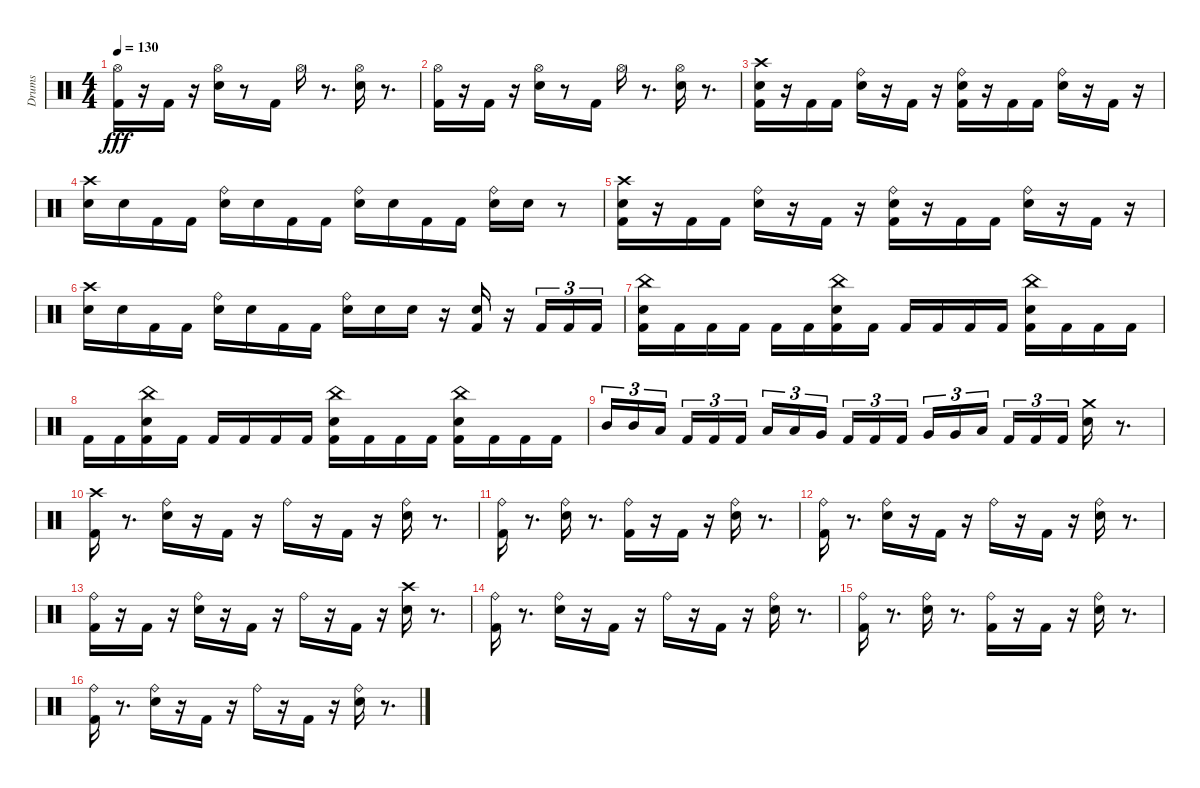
\track ("Drums" "Drums") {instrument percussion}
\staff {score}
\articulation defaults
\ts (4 4)
\tempo 130
\clef neutral
\ks c
("Kick (hit) 2" "Hi-Hat (open)").16{dy fff} r.16 "Kick (hit) 2".16 r.16 ("Hi-Hat (open)" "Electric Snare (hit)").16 r.8 "Kick (hit) 2".16 "Hi-Hat (open)".16 r.8{d} ("Hi-Hat (open)" "Electric Snare (hit)").16 r.8{d} |
("Kick (hit) 2" "Hi-Hat (open)").16 r.16 "Kick (hit) 2".16 r.16 ("Hi-Hat (open)" "Electric Snare (hit)").16 r.8 "Kick (hit) 2".16 "Hi-Hat (open)".16 r.8{d} ("Electric Snare (hit)" "Hi-Hat (open)").16 r.8{d} |
("Kick (hit) 2" "Electric Snare (hit)" "Crash high (hit)").16 r.16 "Kick (hit) 2".16 "Kick (hit) 2".16 ("Electric Snare (hit)" "Ride (bell)").16 r.16 "Kick (hit) 2".16 r.16 ("Kick (hit) 2" "Electric Snare (hit)" "Ride (bell)").16 r.16 "Kick (hit) 2".16 "Kick (hit) 2".16 ("Electric Snare (hit)" "Ride (bell)").16 r.16 "Kick (hit) 2".16 r.16 |
("Electric Snare (hit)" "Crash high (hit)").16 "Electric Snare (hit)".16 "Kick (hit) 2".16 "Kick (hit) 2".16 ("Electric Snare (hit)" "Ride (bell)").16 "Electric Snare (hit)".16 "Kick (hit) 2".16 "Kick (hit) 2".16 ("Electric Snare (hit)" "Ride (bell)").16 "Electric Snare (hit)".16 "Kick (hit) 2".16 "Kick (hit) 2".16 ("Electric Snare (hit)" "Ride (bell)").16 "Electric Snare (hit)".16 r.8 |
("Kick (hit) 2" "Electric Snare (hit)" "Crash high (hit)").16 r.16 "Kick (hit) 2".16 "Kick (hit) 2".16 ("Electric Snare (hit)" "Ride (bell)").16 r.16 "Kick (hit) 2".16 r.16 ("Kick (hit) 2" "Electric Snare (hit)" "Ride (bell)").16 r.16 "Kick (hit) 2".16 "Kick (hit) 2".16 ("Electric Snare (hit)" "Ride (bell)").16 r.16 "Kick (hit) 2".16 r.16 |
("Electric Snare (hit)" "Crash high (hit)").16 "Electric Snare (hit)".16 "Kick (hit) 2".16 "Kick (hit) 2".16 ("Electric Snare (hit)" "Ride (bell)").16 "Electric Snare (hit)".16 "Kick (hit) 2".16 "Kick (hit) 2".16 ("Electric Snare (hit)" "Ride (bell)").16 "Electric Snare (hit)".16 "Electric Snare (hit)".16 r.16 ("Electric Snare (hit)" "Kick (hit) 2").16 r.16 "Kick (hit) 2".16{tu (3 2)} "Kick (hit) 2".16{tu (3 2)} "Kick (hit) 2".16{tu (3 2)} |
("Kick (hit) 2" "China (hit)" "Electric Snare (hit)").16 "Kick (hit) 2".16 "Kick (hit) 2".16 "Kick (hit) 2".16 "Kick (hit) 2".16 "Kick (hit) 2".16 ("China (hit)" "Electric Snare (hit)" "Kick (hit) 2").16 "Kick (hit) 2".16 "Kick (hit) 2".16 "Kick (hit) 2".16 "Kick (hit) 2".16 "Kick (hit) 2".16 ("China (hit)" "Electric Snare (hit)" "Kick (hit) 2").16 "Kick (hit) 2".16 "Kick (hit) 2".16 "Kick (hit) 2".16 |
"Kick (hit) 2".16 "Kick (hit) 2".16 ("China (hit)" "Electric Snare (hit)" "Kick (hit) 2").16 "Kick (hit) 2".16 "Kick (hit) 2".16 "Kick (hit) 2".16 "Kick (hit) 2".16 "Kick (hit) 2".16 ("China (hit)" "Electric Snare (hit)" "Kick (hit) 2").16 "Kick (hit) 2".16 "Kick (hit) 2".16 "Kick (hit) 2".16 ("China (hit)" "Electric Snare (hit)" "Kick (hit) 2").16 "Kick (hit) 2".16 "Kick (hit) 2".16 "Kick (hit) 2".16 |
"Mid Tom (hit)".16{tu (3 2)} "Mid Tom (hit)".16{tu (3 2)} "Low Tom (hit)".16{tu (3 2)} "Kick (hit) 2".16{tu (3 2)} "Kick (hit) 2".16{tu (3 2)} "Kick (hit) 2".16{tu (3 2)} "Low Tom (hit)".16{tu (3 2)} "Low Tom (hit)".16{tu (3 2)} "Very Low Tom (hit)".16{tu (3 2)} "Kick (hit) 2".16{tu (3 2)} "Kick (hit) 2".16{tu (3 2)} "Kick (hit) 2".16{tu (3 2)} "Very Low Tom (hit)".16{tu (3 2)} "Very Low Tom (hit)".16{tu (3 2)} "Low Floor Tom (hit)".16{tu (3 2)} "Kick (hit) 2".16{tu (3 2)} "Kick (hit) 2".16{tu (3 2)} "Kick (hit) 2".16{tu (3 2)} ("Crash medium (hit)" "Electric Snare (hit)").16 r.8{d} |
("Crash high (hit)" "Kick (hit) 2").16 r.8{d} ("Ride (bell)" "Electric Snare (hit)").16 r.16 "Kick (hit) 2".16 r.16 "Ride (bell)".16 r.16 "Kick (hit) 2".16 r.16 ("Electric Snare (hit)" "Ride (bell)").16 r.8{d} |
("Ride (bell)" "Kick (hit) 2").16 r.8{d} ("Electric Snare (hit)" "Ride (bell)").16 r.8{d} ("Kick (hit) 2" "Ride (bell)").16 r.16 "Kick (hit) 2".16 r.16 ("Electric Snare (hit)" "Ride (bell)").16 r.8{d} |
("Ride (bell)" "Kick (hit) 2").16 r.8{d} ("Electric Snare (hit)" "Ride (bell)").16 r.16 "Kick (hit) 2".16 r.16 "Ride (bell)".16 r.16 "Kick (hit) 2".16 r.16 ("Ride (bell)" "Electric Snare (hit)").16 r.8{d} |
("Kick (hit) 2" "Ride (bell)").16 r.16 "Kick (hit) 2".16 r.16 ("Ride (bell)" "Electric Snare (hit)").16 r.16 "Kick (hit) 2".16 r.16 "Ride (bell)".16 r.16 "Kick (hit) 2".16 r.16 ("Crash high (hit)" "Electric Snare (hit)").16 r.8{d} |
("Ride (bell)" "Kick (hit) 2").16 r.8{d} ("Electric Snare (hit)" "Ride (bell)").16 r.16 "Kick (hit) 2".16 r.16 "Ride (bell)".16 r.16 "Kick (hit) 2".16 r.16 ("Ride (bell)" "Electric Snare (hit)").16 r.8{d} |
("Kick (hit) 2" "Ride (bell)").16 r.8{d} ("Ride (bell)" "Electric Snare (hit)").16 r.8{d} ("Ride (bell)" "Kick (hit) 2").16 r.16 "Kick (hit) 2".16 r.16 ("Ride (bell)" "Electric Snare (hit)").16 r.8{d} |
("Kick (hit) 2" "Ride (bell)").16 r.8{d} ("Ride (bell)" "Electric Snare (hit)").16 r.16 "Kick (hit) 2".16 r.16 "Ride (bell)".16 r.16 "Kick (hit) 2".16 r.16 ("Electric Snare (hit)" "Ride (bell)").16 r.8{d}
